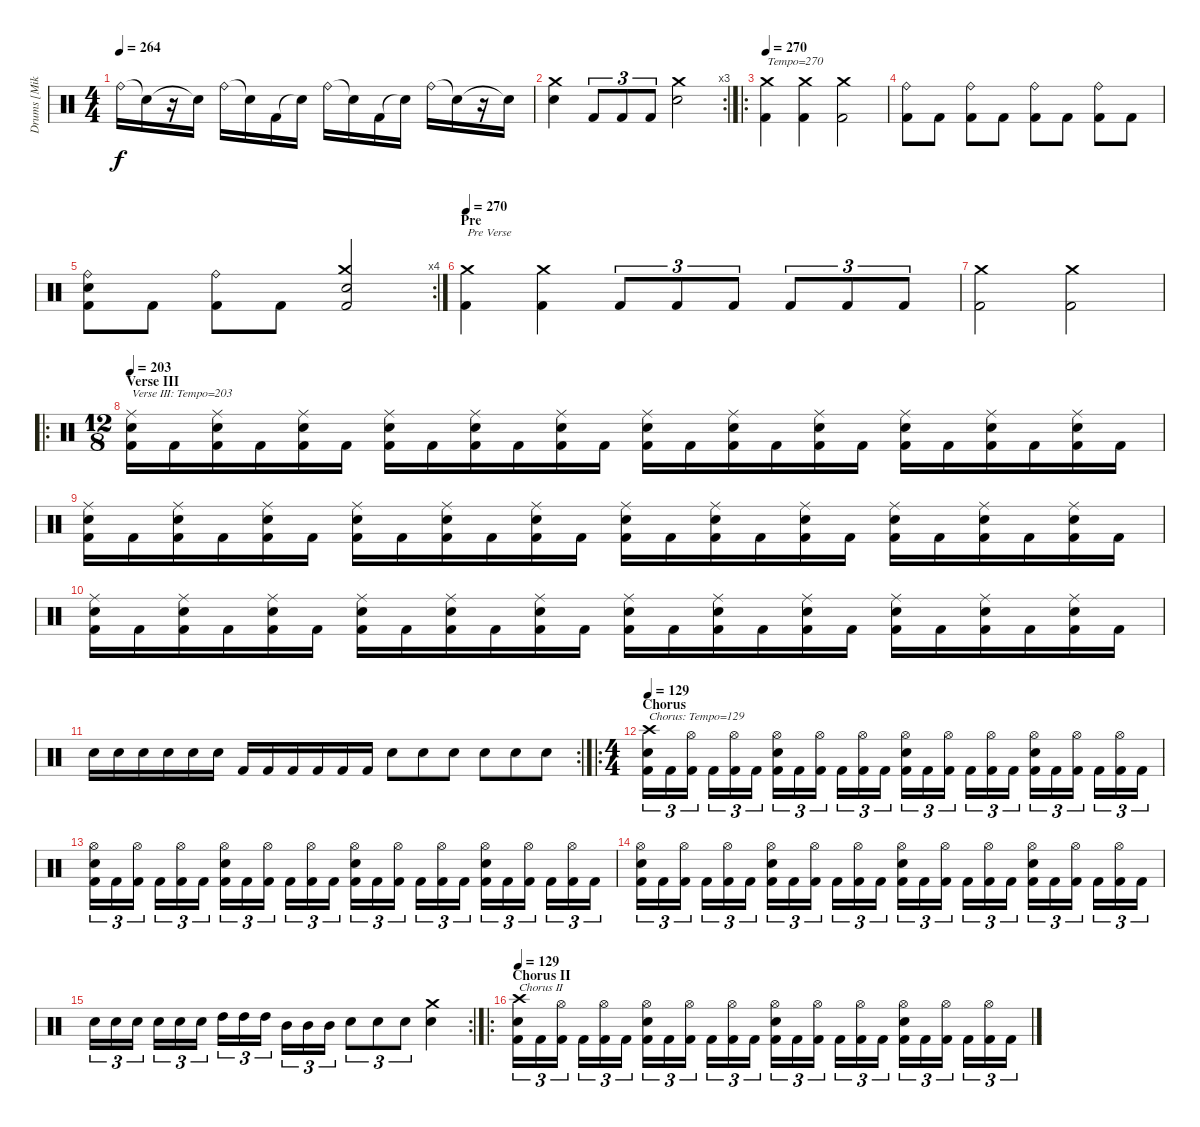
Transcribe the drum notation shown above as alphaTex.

\track ("Drums [Mike Smith]" "Drums [Mik") {instrument percussion}
\staff {score}
\articulation defaults
\ts (4 4)
\tempo 264
\clef neutral
\ks c "Ride (bell)".16{dy f} "Snare (hit)"{t}.16
r.16 "Snare (hit)"{t}.16 "Ride (bell)".16 "Snare (hit)"{t}.16 "Kick (hit) 2".16 "Snare (hit)"{t}.16 "Ride (bell)".16 "Snare (hit)"{t}.16 "Kick (hit) 2".16 "Snare (hit)"{t}.16 "Ride (bell)".16 "Snare (hit)"{t}.16 r.16 "Snare (hit)"{t}.16 |
\rc 3
("Crash medium (hit)" "Electric Snare (hit)").4 "Kick (hit) 2".8{tu (3 2)} "Kick (hit) 2".8{tu (3 2)} "Kick (hit) 2".8{tu (3 2)} ("Crash medium (hit)" "Electric Snare (hit)").2 |
\ro
\tempo 270
("Crash medium (hit)" "Kick (hit) 2").4{txt "Tempo=270"} ("Crash medium (hit)" "Kick (hit) 2").4 ("Crash medium (hit)" "Kick (hit) 2").2 |
("Ride (bell)" "Kick (hit) 2").8 "Kick (hit) 2".8 ("Ride (bell)" "Kick (hit) 2").8 "Kick (hit) 2".8 ("Ride (bell)" "Kick (hit) 2").8 "Kick (hit) 2".8 ("Ride (bell)" "Kick (hit) 2").8 "Kick (hit) 2".8 |
\rc 4
("Ride (bell)" "Electric Snare (hit)" "Kick (hit) 2").8 "Kick (hit) 2".8 ("Ride (bell)" "Kick (hit) 2").8 "Kick (hit) 2".8 ("Crash medium (hit)" "Electric Snare (hit)" "Kick (hit) 2").2 |
\section ("" "Pre")
\tempo 270
("Crash medium (hit)" "Kick (hit) 2").4{txt "Pre Verse"} ("Crash medium (hit)" "Kick (hit) 2").4 "Kick (hit) 2".8{tu (3 2)} "Kick (hit) 2".8{tu (3 2)} "Kick (hit) 2".8{tu (3 2)} "Kick (hit) 2".8{tu (3 2)} "Kick (hit) 2".8{tu (3 2)} "Kick (hit) 2".8{tu (3 2)} |
("Crash medium (hit)" "Kick (hit) 2").2 ("Crash medium (hit)" "Kick (hit) 2").2 |
\ro
\ts (12 8)
\section ("" "Verse III")
\tempo 203
("Ride (middle)" "Electric Snare (hit)" "Kick (hit) 2").16{txt "Verse III: Tempo=203"} "Kick (hit) 2".16 ("Ride (middle)" "Electric Snare (hit)" "Kick (hit) 2").16 "Kick (hit) 2".16 ("Ride (middle)" "Electric Snare (hit)" "Kick (hit) 2").16 "Kick (hit) 2".16 ("Ride (middle)" "Electric Snare (hit)" "Kick (hit) 2").16 "Kick (hit) 2".16 ("Ride (middle)" "Electric Snare (hit)" "Kick (hit) 2").16 "Kick (hit) 2".16 ("Ride (middle)" "Electric Snare (hit)" "Kick (hit) 2").16 "Kick (hit) 2".16 ("Ride (middle)" "Electric Snare (hit)" "Kick (hit) 2").16 "Kick (hit) 2".16 ("Ride (middle)" "Electric Snare (hit)" "Kick (hit) 2").16 "Kick (hit) 2".16 ("Ride (middle)" "Electric Snare (hit)" "Kick (hit) 2").16 "Kick (hit) 2".16 ("Ride (middle)" "Electric Snare (hit)" "Kick (hit) 2").16 "Kick (hit) 2".16 ("Ride (middle)" "Electric Snare (hit)" "Kick (hit) 2").16 "Kick (hit) 2".16 ("Ride (middle)" "Electric Snare (hit)" "Kick (hit) 2").16 "Kick (hit) 2".16 |
("Ride (middle)" "Electric Snare (hit)" "Kick (hit) 2").16 "Kick (hit) 2".16 ("Ride (middle)" "Electric Snare (hit)" "Kick (hit) 2").16 "Kick (hit) 2".16 ("Ride (middle)" "Electric Snare (hit)" "Kick (hit) 2").16 "Kick (hit) 2".16 ("Ride (middle)" "Electric Snare (hit)" "Kick (hit) 2").16 "Kick (hit) 2".16 ("Ride (middle)" "Electric Snare (hit)" "Kick (hit) 2").16 "Kick (hit) 2".16 ("Ride (middle)" "Electric Snare (hit)" "Kick (hit) 2").16 "Kick (hit) 2".16 ("Ride (middle)" "Electric Snare (hit)" "Kick (hit) 2").16 "Kick (hit) 2".16 ("Ride (middle)" "Electric Snare (hit)" "Kick (hit) 2").16 "Kick (hit) 2".16 ("Ride (middle)" "Electric Snare (hit)" "Kick (hit) 2").16 "Kick (hit) 2".16 ("Ride (middle)" "Electric Snare (hit)" "Kick (hit) 2").16 "Kick (hit) 2".16 ("Ride (middle)" "Electric Snare (hit)" "Kick (hit) 2").16 "Kick (hit) 2".16 ("Ride (middle)" "Electric Snare (hit)" "Kick (hit) 2").16 "Kick (hit) 2".16 |
("Ride (middle)" "Electric Snare (hit)" "Kick (hit) 2").16 "Kick (hit) 2".16 ("Ride (middle)" "Electric Snare (hit)" "Kick (hit) 2").16 "Kick (hit) 2".16 ("Ride (middle)" "Electric Snare (hit)" "Kick (hit) 2").16 "Kick (hit) 2".16 ("Ride (middle)" "Electric Snare (hit)" "Kick (hit) 2").16 "Kick (hit) 2".16 ("Ride (middle)" "Electric Snare (hit)" "Kick (hit) 2").16 "Kick (hit) 2".16 ("Ride (middle)" "Electric Snare (hit)" "Kick (hit) 2").16 "Kick (hit) 2".16 ("Ride (middle)" "Electric Snare (hit)" "Kick (hit) 2").16 "Kick (hit) 2".16 ("Ride (middle)" "Electric Snare (hit)" "Kick (hit) 2").16 "Kick (hit) 2".16 ("Ride (middle)" "Electric Snare (hit)" "Kick (hit) 2").16 "Kick (hit) 2".16 ("Ride (middle)" "Electric Snare (hit)" "Kick (hit) 2").16 "Kick (hit) 2".16 ("Ride (middle)" "Electric Snare (hit)" "Kick (hit) 2").16 "Kick (hit) 2".16 ("Ride (middle)" "Electric Snare (hit)" "Kick (hit) 2").16 "Kick (hit) 2".16 |
\rc 2 "Electric Snare (hit)".16 "Electric Snare (hit)".16 "Electric Snare (hit)".16 "Electric Snare (hit)".16 "Electric Snare (hit)".16 "Electric Snare (hit)".16 "Kick (hit) 2".16 "Kick (hit) 2".16 "Kick (hit) 2".16 "Kick (hit) 2".16 "Kick (hit) 2".16 "Kick (hit) 2".16 "Electric Snare (hit)".8 "Electric Snare (hit)".8 "Electric Snare (hit)".8 "Electric Snare (hit)".8 "Electric Snare (hit)".8 "Electric Snare (hit)".8
|
\ro
\ts (4 4)
\section ("" "Chorus")
\tempo 129
("Crash high (hit)" "Electric Snare (hit)" "Kick (hit) 2").16{tu (3 2) txt "Chorus: Tempo=129"} "Kick (hit) 2".16{tu (3 2)} ("Hi-Hat (open)" "Kick (hit) 2").16{tu (3 2)} "Kick (hit) 2".16{tu (3 2)} ("Hi-Hat (open)" "Kick (hit) 2").16{tu (3 2)} "Kick (hit) 2".16{tu (3 2)} ("Hi-Hat (open)" "Electric Snare (hit)" "Kick (hit) 2").16{tu (3 2)} "Kick (hit) 2".16{tu (3 2)} ("Hi-Hat (open)" "Kick (hit) 2").16{tu (3 2)} "Kick (hit) 2".16{tu (3 2)} ("Hi-Hat (open)" "Kick (hit) 2").16{tu (3 2)} "Kick (hit) 2".16{tu (3 2)} ("Hi-Hat (open)" "Electric Snare (hit)" "Kick (hit) 2").16{tu (3 2)} "Kick (hit) 2".16{tu (3 2)} ("Hi-Hat (open)" "Kick (hit) 2").16{tu (3 2)} "Kick (hit) 2".16{tu (3 2)} ("Hi-Hat (open)" "Kick (hit) 2").16{tu (3 2)} "Kick (hit) 2".16{tu (3 2)} ("Hi-Hat (open)" "Electric Snare (hit)" "Kick (hit) 2").16{tu (3 2)} "Kick (hit) 2".16{tu (3 2)} ("Hi-Hat (open)" "Kick (hit) 2").16{tu (3 2)} "Kick (hit) 2".16{tu (3 2)} ("Hi-Hat (open)" "Kick (hit) 2").16{tu (3 2)} "Kick (hit) 2".16{tu (3 2)} |
("Hi-Hat (open)" "Electric Snare (hit)" "Kick (hit) 2").16{tu (3 2)} "Kick (hit) 2".16{tu (3 2)} ("Hi-Hat (open)" "Kick (hit) 2").16{tu (3 2)} "Kick (hit) 2".16{tu (3 2)} ("Hi-Hat (open)" "Kick (hit) 2").16{tu (3 2)} "Kick (hit) 2".16{tu (3 2)} ("Hi-Hat (open)" "Electric Snare (hit)" "Kick (hit) 2").16{tu (3 2)} "Kick (hit) 2".16{tu (3 2)} ("Hi-Hat (open)" "Kick (hit) 2").16{tu (3 2)} "Kick (hit) 2".16{tu (3 2)} ("Hi-Hat (open)" "Kick (hit) 2").16{tu (3 2)} "Kick (hit) 2".16{tu (3 2)} ("Hi-Hat (open)" "Electric Snare (hit)" "Kick (hit) 2").16{tu (3 2)} "Kick (hit) 2".16{tu (3 2)} ("Hi-Hat (open)" "Kick (hit) 2").16{tu (3 2)} "Kick (hit) 2".16{tu (3 2)} ("Hi-Hat (open)" "Kick (hit) 2").16{tu (3 2)} "Kick (hit) 2".16{tu (3 2)} ("Hi-Hat (open)" "Electric Snare (hit)" "Kick (hit) 2").16{tu (3 2)} "Kick (hit) 2".16{tu (3 2)} ("Hi-Hat (open)" "Kick (hit) 2").16{tu (3 2)} "Kick (hit) 2".16{tu (3 2)} ("Hi-Hat (open)" "Kick (hit) 2").16{tu (3 2)} "Kick (hit) 2".16{tu (3 2)} |
("Hi-Hat (open)" "Electric Snare (hit)" "Kick (hit) 2").16{tu (3 2)} "Kick (hit) 2".16{tu (3 2)} ("Hi-Hat (open)" "Kick (hit) 2").16{tu (3 2)} "Kick (hit) 2".16{tu (3 2)} ("Hi-Hat (open)" "Kick (hit) 2").16{tu (3 2)} "Kick (hit) 2".16{tu (3 2)} ("Hi-Hat (open)" "Electric Snare (hit)" "Kick (hit) 2").16{tu (3 2)} "Kick (hit) 2".16{tu (3 2)} ("Hi-Hat (open)" "Kick (hit) 2").16{tu (3 2)} "Kick (hit) 2".16{tu (3 2)} ("Hi-Hat (open)" "Kick (hit) 2").16{tu (3 2)} "Kick (hit) 2".16{tu (3 2)} ("Hi-Hat (open)" "Electric Snare (hit)" "Kick (hit) 2").16{tu (3 2)} "Kick (hit) 2".16{tu (3 2)} ("Hi-Hat (open)" "Kick (hit) 2").16{tu (3 2)} "Kick (hit) 2".16{tu (3 2)} ("Hi-Hat (open)" "Kick (hit) 2").16{tu (3 2)} "Kick (hit) 2".16{tu (3 2)} ("Hi-Hat (open)" "Electric Snare (hit)" "Kick (hit) 2").16{tu (3 2)} "Kick (hit) 2".16{tu (3 2)} ("Hi-Hat (open)" "Kick (hit) 2").16{tu (3 2)} "Kick (hit) 2".16{tu (3 2)} ("Hi-Hat (open)" "Kick (hit) 2").16{tu (3 2)} "Kick (hit) 2".16{tu (3 2)} |
\rc 2 "Electric Snare (hit)".16{tu (3 2)} "Electric Snare (hit)".16{tu (3 2)} "Electric Snare (hit)".16{tu (3 2)} "Electric Snare (hit)".16{tu (3 2)} "Electric Snare (hit)".16{tu (3 2)} "Electric Snare (hit)".16{tu (3 2)} "High Tom (hit)".16{tu (3 2)} "High Tom (hit)".16{tu (3 2)} "High Tom (hit)".16{tu (3 2)} "Mid Tom (hit)".16{tu (3 2)} "Mid Tom (hit)".16{tu (3 2)} "Mid Tom (hit)".16{tu (3 2)} "Electric Snare (hit)".8{tu (3 2)} "Electric Snare (hit)".8{tu (3 2)} "Electric Snare (hit)".8{tu (3 2)}
("Crash medium (hit)" "Electric Snare (hit)").4 |
\ro
\section ("" "Chorus II")
\tempo 129
("Crash high (hit)" "Electric Snare (hit)" "Kick (hit) 2").16{tu (3 2) txt "Chorus II"} "Kick (hit) 2".16{tu (3 2)} ("Hi-Hat (open)" "Kick (hit) 2").16{tu (3 2)} "Kick (hit) 2".16{tu (3 2)} ("Hi-Hat (open)" "Kick (hit) 2").16{tu (3 2)} "Kick (hit) 2".16{tu (3 2)} ("Hi-Hat (open)" "Electric Snare (hit)" "Kick (hit) 2").16{tu (3 2)} "Kick (hit) 2".16{tu (3 2)} ("Hi-Hat (open)" "Kick (hit) 2").16{tu (3 2)} "Kick (hit) 2".16{tu (3 2)} ("Hi-Hat (open)" "Kick (hit) 2").16{tu (3 2)} "Kick (hit) 2".16{tu (3 2)} ("Hi-Hat (open)" "Electric Snare (hit)" "Kick (hit) 2").16{tu (3 2)} "Kick (hit) 2".16{tu (3 2)} ("Hi-Hat (open)" "Kick (hit) 2").16{tu (3 2)} "Kick (hit) 2".16{tu (3 2)} ("Hi-Hat (open)" "Kick (hit) 2").16{tu (3 2)} "Kick (hit) 2".16{tu (3 2)} ("Hi-Hat (open)" "Electric Snare (hit)" "Kick (hit) 2").16{tu (3 2)} "Kick (hit) 2".16{tu (3 2)} ("Hi-Hat (open)" "Kick (hit) 2").16{tu (3 2)} "Kick (hit) 2".16{tu (3 2)} ("Hi-Hat (open)" "Kick (hit) 2").16{tu (3 2)} "Kick (hit) 2".16{tu (3 2)}
